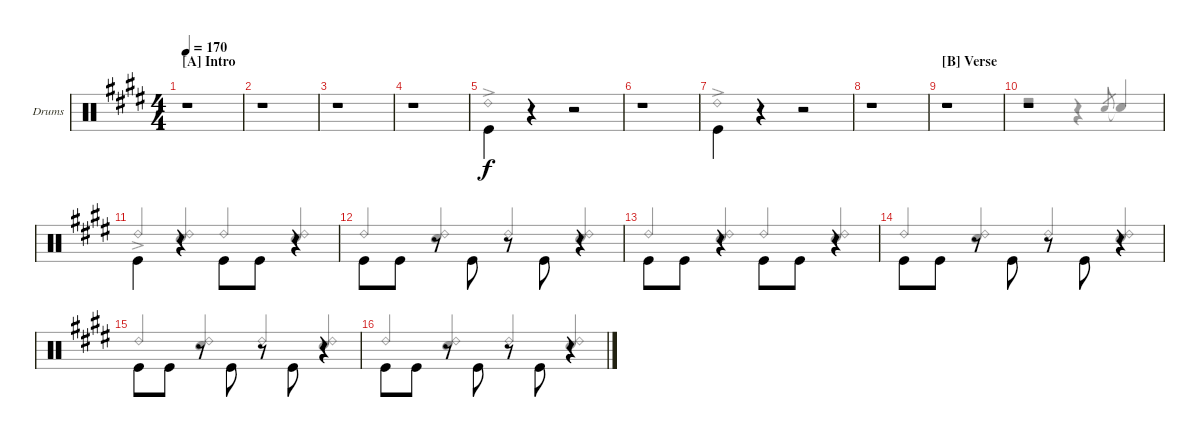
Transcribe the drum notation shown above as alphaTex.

\bracketExtendMode groupsimilarinstruments
\firstSystemTrackNameOrientation horizontal
\otherSystemsTrackNameOrientation horizontal
\track ("Drums" "Drums") {instrument percussion}
\staff {score}
\articulation defaults
\voice
\ts (4 4)
\section ("A" "Intro")
\tempo 170
\clef neutral
\scale
1.09584
\ks e
r.1{dy f} |
\scale
0.904161 r.1 |
\scale
1.06557 r.1 |
\scale
0.934426 r.1 |
\scale
1.06557 "Kick (hit)".4{beam invert} r.4 r.2 |
\scale
0.934426 r.1 |
\scale
1.06557 "Kick (hit)".4{beam invert} r.4 r.2 |
\scale
0.934426 r.1 |
\section ("B" "Verse")
\scale
1.06557 r.1 |
\scale
0.934426 r.1 |
\scale
1.06557 "Kick (hit)".4{beam invert} r.4{beam invert} "Kick (hit)".8{beam invert} "Kick (hit)".8 r.4{beam invert} |
\scale
0.934426 "Kick (hit)".8{beam invert} "Kick (hit)".8 r.8{beam invert} "Kick (hit)".8{beam invert} r.8{beam invert} "Kick (hit)".8{beam invert} r.4{beam invert} |
\scale
1.06557 "Kick (hit)".8{beam invert} "Kick (hit)".8 r.4{beam invert} "Kick (hit)".8{beam invert} "Kick (hit)".8 r.4{beam invert} |
\scale
0.934426 "Kick (hit)".8{beam invert} "Kick (hit)".8 r.8{beam invert} "Kick (hit)".8{beam invert} r.8{beam invert} "Kick (hit)".8{beam invert} r.4{beam invert} |
\scale
1.06557 "Kick (hit)".8{beam invert} "Kick (hit)".8 r.8{beam invert} "Kick (hit)".8{beam invert} r.8{beam invert} "Kick (hit)".8{beam invert} r.4{beam invert} |
\scale
0.934426 "Kick (hit)".8{beam invert} "Kick (hit)".8 r.8{beam invert} "Kick (hit)".8{beam invert} r.8{beam invert} "Kick (hit)".8{beam invert} r.4{beam invert}
\voice
\clef neutral
\ottava regular
\simile none
\scale
1.09584
\ks e
|
\scale
0.904161 |
\scale
1.06557 |
\scale
0.934426 |
\scale
1.06557 "Ride (bell) 2"{ac}.1 |
\scale
0.934426 |
\scale
1.06557 "Ride (bell) 2"{ac}.1 |
\scale
0.934426 |
\scale
1.06557 |
\scale
0.934426 r.2 r.4 "Snare (hit) 2".8{gr beam invert} "Snare (hit) 2"{t}.4{beam invert} |
\scale
1.06557 "Ride (bell) 2"{ac}.4{beam invert} ("Ride (bell) 2" "Snare (hit) 2").4{beam invert} "Ride (bell) 2".4{beam invert} ("Ride (bell) 2" "Snare (hit) 2").4{beam invert} |
\scale
0.934426 "Ride (bell) 2".4{beam invert} ("Ride (bell) 2" "Snare (hit) 2").4{beam invert} "Ride (bell) 2".4{beam invert} ("Ride (bell) 2" "Snare (hit) 2").4{beam invert} |
\scale
1.06557 "Ride (bell) 2".4{beam invert} ("Ride (bell) 2" "Snare (hit) 2").4{beam invert} "Ride (bell) 2".4{beam invert} ("Ride (bell) 2" "Snare (hit) 2").4{beam invert} |
\scale
0.934426 "Ride (bell) 2".4{beam invert} ("Ride (bell) 2" "Snare (hit) 2").4{beam invert} "Ride (bell) 2".4{beam invert} ("Ride (bell) 2" "Snare (hit) 2").4{beam invert} |
\scale
1.06557 "Ride (bell) 2".4{beam invert} ("Ride (bell) 2" "Snare (hit) 2").4{beam invert} "Ride (bell) 2".4{beam invert} ("Ride (bell) 2" "Snare (hit) 2").4{beam invert} |
\scale
0.934426 "Ride (bell) 2".4{beam invert} ("Ride (bell) 2" "Snare (hit) 2").4{beam invert} "Ride (bell) 2".4{beam invert} ("Ride (bell) 2" "Snare (hit) 2").4{beam invert}
